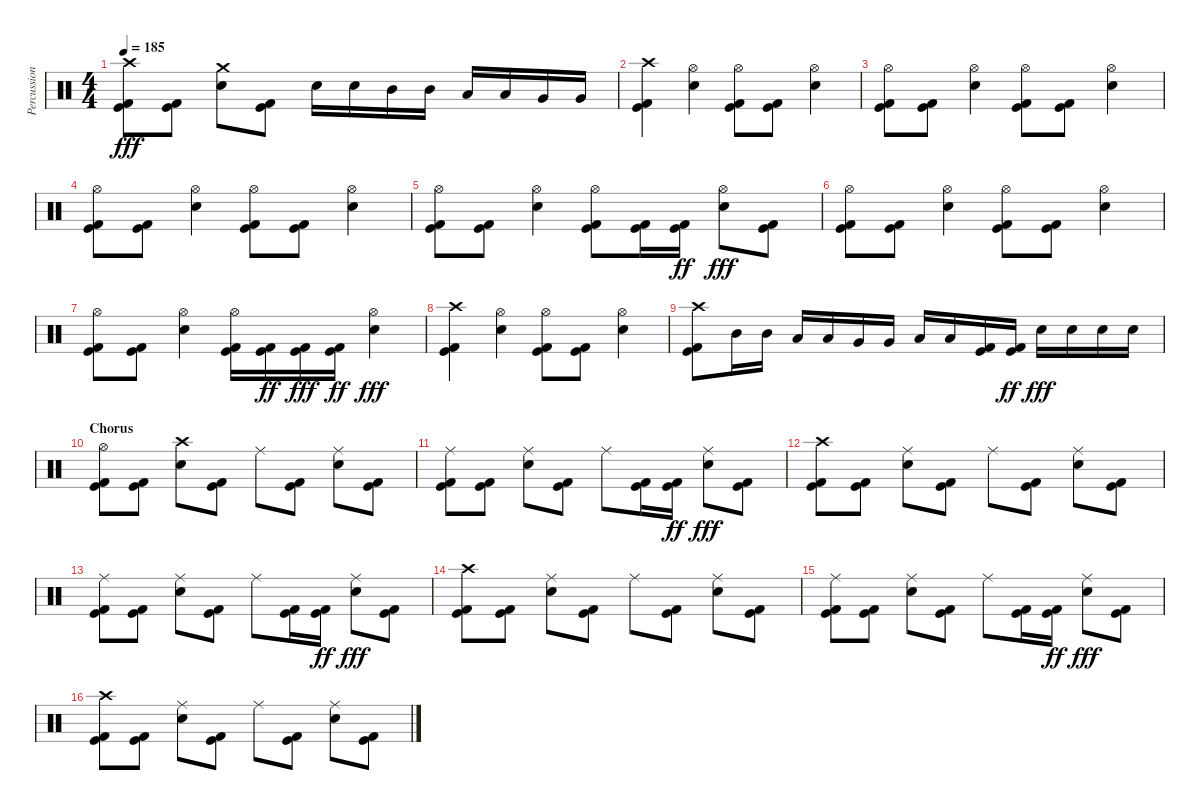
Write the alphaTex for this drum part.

\track ("Percussion" "Percussion") {instrument percussion}
\staff {score}
\articulation defaults
\ts (4 4)
\tempo 185
\clef neutral
\ks c
("Crash high (hit)" "Kick (hit)" "Kick (hit) 2").8{dy fff} ("Kick (hit)" "Kick (hit) 2").8 ("Crash medium (hit)" "Snare (hit) 2").8 ("Kick (hit)" "Kick (hit) 2").8 "Snare (hit) 2".16 "Snare (hit) 2".16 "Mid Tom (hit)".16 "Mid Tom (hit)".16 "Low Tom (hit)".16 "Low Tom (hit)".16 "Very Low Tom (hit)".16 "Very Low Tom (hit)".16 |
("Crash high (hit)" "Kick (hit)" "Kick (hit) 2").4 ("Hi-Hat (open)" "Snare (hit) 2").4 ("Hi-Hat (open)" "Kick (hit)" "Kick (hit) 2").8 ("Kick (hit)" "Kick (hit) 2").8 ("Hi-Hat (open)" "Snare (hit) 2").4 |
("Hi-Hat (open)" "Kick (hit)" "Kick (hit) 2").8 ("Kick (hit)" "Kick (hit) 2").8 ("Hi-Hat (open)" "Snare (hit) 2").4 ("Hi-Hat (open)" "Kick (hit)" "Kick (hit) 2").8 ("Kick (hit)" "Kick (hit) 2").8 ("Hi-Hat (open)" "Snare (hit) 2").4 |
("Hi-Hat (open)" "Kick (hit)" "Kick (hit) 2").8 ("Kick (hit)" "Kick (hit) 2").8 ("Hi-Hat (open)" "Snare (hit) 2").4 ("Hi-Hat (open)" "Kick (hit)" "Kick (hit) 2").8 ("Kick (hit)" "Kick (hit) 2").8 ("Hi-Hat (open)" "Snare (hit) 2").4 |
("Hi-Hat (open)" "Kick (hit)" "Kick (hit) 2").8 ("Kick (hit)" "Kick (hit) 2").8 ("Hi-Hat (open)" "Snare (hit) 2").4 ("Hi-Hat (open)" "Kick (hit)" "Kick (hit) 2").8 ("Kick (hit)" "Kick (hit) 2").16 ("Kick (hit)" "Kick (hit) 2").16{dy ff} ("Hi-Hat (open)" "Snare (hit) 2").8{dy fff} ("Kick (hit)" "Kick (hit) 2").8 |
("Hi-Hat (open)" "Kick (hit)" "Kick (hit) 2").8 ("Kick (hit)" "Kick (hit) 2").8 ("Hi-Hat (open)" "Snare (hit) 2").4 ("Hi-Hat (open)" "Kick (hit)" "Kick (hit) 2").8 ("Kick (hit)" "Kick (hit) 2").8 ("Hi-Hat (open)" "Snare (hit) 2").4 |
("Hi-Hat (open)" "Kick (hit)" "Kick (hit) 2").8 ("Kick (hit)" "Kick (hit) 2").8 ("Hi-Hat (open)" "Snare (hit) 2").4 ("Hi-Hat (open)" "Kick (hit)" "Kick (hit) 2").16 ("Kick (hit)" "Kick (hit) 2").16{dy ff} ("Kick (hit)" "Kick (hit) 2").16{dy fff} ("Kick (hit)" "Kick (hit) 2").16{dy ff} ("Hi-Hat (open)" "Snare (hit) 2").4{dy fff} |
("Crash high (hit)" "Kick (hit)" "Kick (hit) 2").4 ("Hi-Hat (open)" "Snare (hit) 2").4 ("Hi-Hat (open)" "Kick (hit)" "Kick (hit) 2").8 ("Kick (hit)" "Kick (hit) 2").8 ("Hi-Hat (open)" "Snare (hit) 2").4 |
("Crash high (hit)" "Kick (hit)" "Kick (hit) 2").8 "Mid Tom (hit)".16 "Mid Tom (hit)".16 "Low Tom (hit)".16 "Low Tom (hit)".16 "Very Low Tom (hit)".16 "Very Low Tom (hit)".16 "Low Floor Tom (hit)".16 "Low Floor Tom (hit)".16 ("Kick (hit)" "Kick (hit) 2").16 ("Kick (hit)" "Kick (hit) 2").16{dy ff} "Snare (hit) 2".16{dy fff} "Snare (hit) 2".16 "Snare (hit) 2".16 "Snare (hit) 2".16 |
\section ("" "Chorus")
("Hi-Hat (open)" "Kick (hit)" "Kick (hit) 2").8 ("Kick (hit)" "Kick (hit) 2").8 ("Crash high (hit)" "Snare (hit) 2").8 ("Kick (hit)" "Kick (hit) 2").8 "Ride (middle)".8 ("Kick (hit)" "Kick (hit) 2").8 ("Ride (middle)" "Snare (hit) 2").8 ("Kick (hit)" "Kick (hit) 2").8 |
("Ride (middle)" "Kick (hit)" "Kick (hit) 2").8 ("Kick (hit)" "Kick (hit) 2").8 ("Ride (middle)" "Snare (hit) 2").8 ("Kick (hit)" "Kick (hit) 2").8 "Ride (middle)".8 ("Kick (hit)" "Kick (hit) 2").16 ("Kick (hit)" "Kick (hit) 2").16{dy ff} ("Ride (middle)" "Snare (hit) 2").8{dy fff} ("Kick (hit)" "Kick (hit) 2").8 |
("Crash high (hit)" "Kick (hit)" "Kick (hit) 2").8 ("Kick (hit)" "Kick (hit) 2").8 ("Ride (middle)" "Snare (hit) 2").8 ("Kick (hit)" "Kick (hit) 2").8 "Ride (middle)".8 ("Kick (hit)" "Kick (hit) 2").8 ("Ride (middle)" "Snare (hit) 2").8 ("Kick (hit)" "Kick (hit) 2").8 |
("Ride (middle)" "Kick (hit)" "Kick (hit) 2").8 ("Kick (hit)" "Kick (hit) 2").8 ("Ride (middle)" "Snare (hit) 2").8 ("Kick (hit)" "Kick (hit) 2").8 "Ride (middle)".8 ("Kick (hit)" "Kick (hit) 2").16 ("Kick (hit)" "Kick (hit) 2").16{dy ff} ("Ride (middle)" "Snare (hit) 2").8{dy fff} ("Kick (hit)" "Kick (hit) 2").8 |
("Crash high (hit)" "Kick (hit)" "Kick (hit) 2").8 ("Kick (hit)" "Kick (hit) 2").8 ("Ride (middle)" "Snare (hit) 2").8 ("Kick (hit)" "Kick (hit) 2").8 "Ride (middle)".8 ("Kick (hit)" "Kick (hit) 2").8 ("Ride (middle)" "Snare (hit) 2").8 ("Kick (hit)" "Kick (hit) 2").8 |
("Ride (middle)" "Kick (hit)" "Kick (hit) 2").8 ("Kick (hit)" "Kick (hit) 2").8 ("Ride (middle)" "Snare (hit) 2").8 ("Kick (hit)" "Kick (hit) 2").8 "Ride (middle)".8 ("Kick (hit)" "Kick (hit) 2").16 ("Kick (hit)" "Kick (hit) 2").16{dy ff} ("Ride (middle)" "Snare (hit) 2").8{dy fff} ("Kick (hit)" "Kick (hit) 2").8 |
("Crash high (hit)" "Kick (hit)" "Kick (hit) 2").8 ("Kick (hit)" "Kick (hit) 2").8 ("Ride (middle)" "Snare (hit) 2").8 ("Kick (hit)" "Kick (hit) 2").8 "Ride (middle)".8 ("Kick (hit)" "Kick (hit) 2").8 ("Ride (middle)" "Snare (hit) 2").8 ("Kick (hit)" "Kick (hit) 2").8
